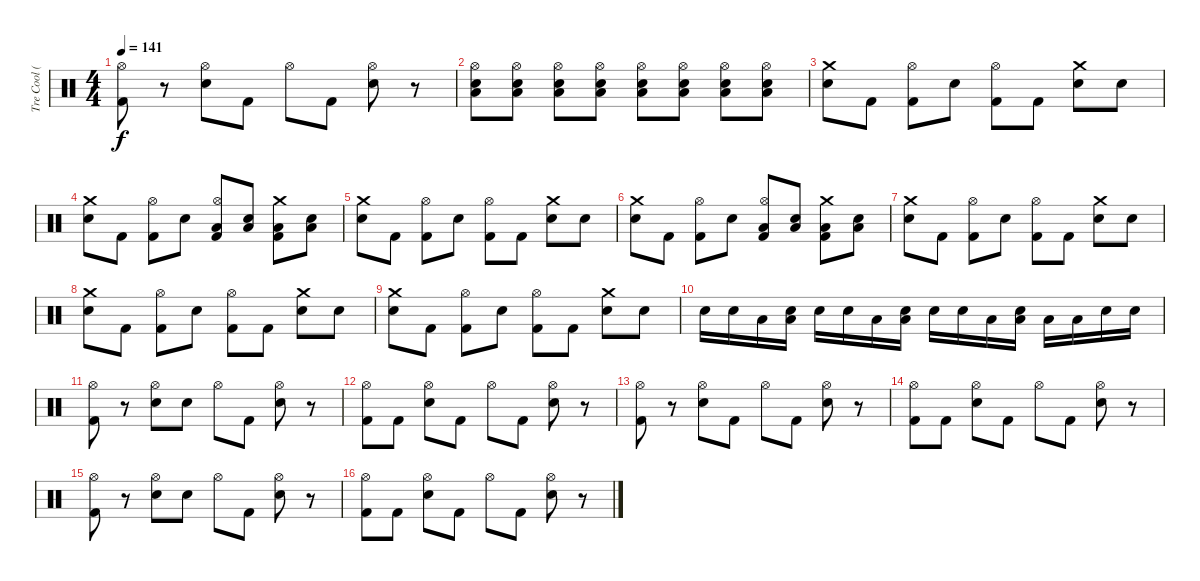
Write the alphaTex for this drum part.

\track ("Tre Cool (Drums)" "Tre Cool (") {instrument percussion}
\staff {score}
\articulation defaults
\ts (4 4)
\tempo 141
\clef neutral
\ks c
("Kick (hit) 2" "Hi-Hat (open)").8{dy f} r.8 ("Electric Snare (hit)" "Hi-Hat (open)").8 "Kick (hit) 2".8 "Hi-Hat (open)".8 "Kick (hit) 2".8 ("Electric Snare (hit)" "Hi-Hat (open)").8 r.8 |
("Low Floor Tom (hit)" "Electric Snare (hit)" "Hi-Hat (open)").8{volume 8} ("Low Floor Tom (hit)" "Electric Snare (hit)" "Hi-Hat (open)").8 ("Low Floor Tom (hit)" "Electric Snare (hit)" "Hi-Hat (open)").8{volume 10} ("Low Floor Tom (hit)" "Electric Snare (hit)" "Hi-Hat (open)").8 ("Low Floor Tom (hit)" "Electric Snare (hit)" "Hi-Hat (open)").8{volume 13} ("Low Floor Tom (hit)" "Electric Snare (hit)" "Hi-Hat (open)").8 ("Low Floor Tom (hit)" "Electric Snare (hit)" "Hi-Hat (open)").8{volume 16} ("Low Floor Tom (hit)" "Electric Snare (hit)" "Hi-Hat (open)").8 |
("Electric Snare (hit)" "Crash medium (hit)").8 "Kick (hit) 2".8 ("Kick (hit) 2" "Hi-Hat (open)").8 "Electric Snare (hit)".8 ("Kick (hit) 2" "Hi-Hat (open)").8 "Kick (hit) 2".8 ("Electric Snare (hit)" "Crash medium (hit)").8 "Electric Snare (hit)".8 |
("Electric Snare (hit)" "Crash medium (hit)").8 "Kick (hit) 2".8 ("Kick (hit) 2" "Hi-Hat (open)").8 "Electric Snare (hit)".8 ("Kick (hit) 2" "Low Floor Tom (hit)" "Hi-Hat (open)").8 ("Low Floor Tom (hit)" "Electric Snare (hit)").8 ("Kick (hit) 2" "Low Floor Tom (hit)" "Crash medium (hit)").8 ("Low Floor Tom (hit)" "Electric Snare (hit)").8 |
("Electric Snare (hit)" "Crash medium (hit)").8 "Kick (hit) 2".8 ("Kick (hit) 2" "Hi-Hat (open)").8 "Electric Snare (hit)".8 ("Kick (hit) 2" "Hi-Hat (open)").8 "Kick (hit) 2".8 ("Electric Snare (hit)" "Crash medium (hit)").8 "Electric Snare (hit)".8 |
("Electric Snare (hit)" "Crash medium (hit)").8 "Kick (hit) 2".8 ("Kick (hit) 2" "Hi-Hat (open)").8 "Electric Snare (hit)".8 ("Kick (hit) 2" "Low Floor Tom (hit)" "Hi-Hat (open)").8 ("Low Floor Tom (hit)" "Electric Snare (hit)").8 ("Kick (hit) 2" "Low Floor Tom (hit)" "Crash medium (hit)").8 ("Low Floor Tom (hit)" "Electric Snare (hit)").8 |
("Electric Snare (hit)" "Crash medium (hit)").8 "Kick (hit) 2".8 ("Kick (hit) 2" "Hi-Hat (open)").8 "Electric Snare (hit)".8 ("Kick (hit) 2" "Hi-Hat (open)").8 "Kick (hit) 2".8 ("Electric Snare (hit)" "Crash medium (hit)").8 "Electric Snare (hit)".8 |
("Electric Snare (hit)" "Crash medium (hit)").8 "Kick (hit) 2".8 ("Kick (hit) 2" "Hi-Hat (open)").8 "Electric Snare (hit)".8 ("Kick (hit) 2" "Hi-Hat (open)").8 "Kick (hit) 2".8 ("Electric Snare (hit)" "Crash medium (hit)").8 "Electric Snare (hit)".8 |
("Electric Snare (hit)" "Crash medium (hit)").8 "Kick (hit) 2".8 ("Kick (hit) 2" "Hi-Hat (open)").8 "Electric Snare (hit)".8 ("Kick (hit) 2" "Hi-Hat (open)").8 "Kick (hit) 2".8 ("Electric Snare (hit)" "Crash medium (hit)").8 "Electric Snare (hit)".8 |
"Electric Snare (hit)".16 "Electric Snare (hit)".16 "Low Floor Tom (hit)".16 ("Low Floor Tom (hit)" "Electric Snare (hit)").16 "Electric Snare (hit)".16 "Electric Snare (hit)".16 "Low Floor Tom (hit)".16 ("Low Floor Tom (hit)" "Electric Snare (hit)").16 "Electric Snare (hit)".16 "Electric Snare (hit)".16 "Low Floor Tom (hit)".16 ("Low Floor Tom (hit)" "Electric Snare (hit)").16 "Low Floor Tom (hit)".16 "Low Floor Tom (hit)".16 "Electric Snare (hit)".16 "Electric Snare (hit)".16 |
("Kick (hit) 2" "Hi-Hat (open)").8 r.8 ("Electric Snare (hit)" "Hi-Hat (open)").8 "Electric Snare (hit)".8 "Hi-Hat (open)".8 "Kick (hit) 2".8 ("Electric Snare (hit)" "Hi-Hat (open)").8 r.8 |
("Kick (hit) 2" "Hi-Hat (open)").8 "Kick (hit) 2".8 ("Electric Snare (hit)" "Hi-Hat (open)").8 "Kick (hit) 2".8 "Hi-Hat (open)".8 "Kick (hit) 2".8 ("Electric Snare (hit)" "Hi-Hat (open)").8 r.8 |
("Kick (hit) 2" "Hi-Hat (open)").8 r.8 ("Electric Snare (hit)" "Hi-Hat (open)").8 "Kick (hit) 2".8 "Hi-Hat (open)".8 "Kick (hit) 2".8 ("Electric Snare (hit)" "Hi-Hat (open)").8 r.8 |
("Kick (hit) 2" "Hi-Hat (open)").8 "Kick (hit) 2".8 ("Electric Snare (hit)" "Hi-Hat (open)").8 "Kick (hit) 2".8 "Hi-Hat (open)".8 "Kick (hit) 2".8 ("Electric Snare (hit)" "Hi-Hat (open)").8 r.8 |
("Kick (hit) 2" "Hi-Hat (open)").8 r.8 ("Electric Snare (hit)" "Hi-Hat (open)").8 "Electric Snare (hit)".8 "Hi-Hat (open)".8 "Kick (hit) 2".8 ("Electric Snare (hit)" "Hi-Hat (open)").8 r.8 |
("Kick (hit) 2" "Hi-Hat (open)").8 "Kick (hit) 2".8 ("Electric Snare (hit)" "Hi-Hat (open)").8 "Kick (hit) 2".8 "Hi-Hat (open)".8 "Kick (hit) 2".8 ("Electric Snare (hit)" "Hi-Hat (open)").8 r.8
